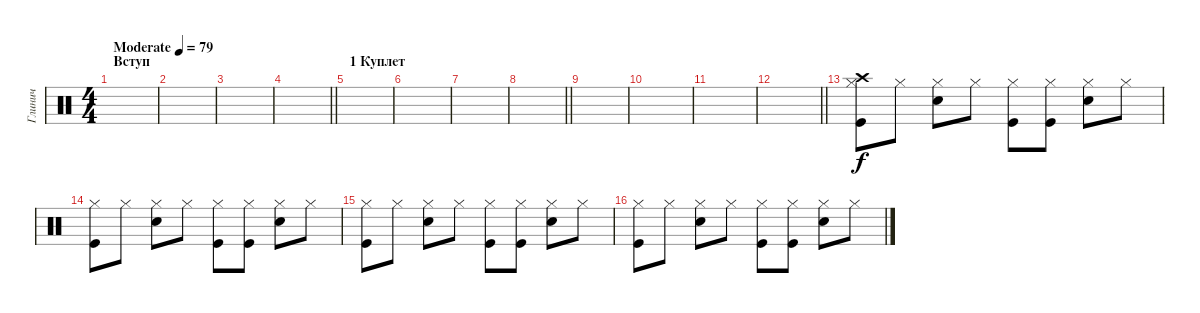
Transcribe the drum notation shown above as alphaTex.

\track ("Глинич" "Глинич") {instrument percussion}
\staff {score}
\articulation defaults
\ts (4 4)
\section ("" "Вступ")
\tempo (79 "Moderate")
\clef neutral
\ks c
|
|
|
\barLineRight lightlight
|
\section ("" "1 Куплет")
|
|
|
\barLineRight lightlight
|
|
|
|
\barLineRight lightlight
|
("Hi-Hat (closed)" "Crash high (hit)" "Kick (hit)").8 "Hi-Hat (closed)".8 ("Hi-Hat (closed)" "Snare (hit) 2").8 "Hi-Hat (closed)".8 ("Hi-Hat (closed)" "Kick (hit)").8 ("Hi-Hat (closed)" "Kick (hit)").8 ("Hi-Hat (closed)" "Snare (hit) 2").8 "Hi-Hat (closed)".8 |
("Hi-Hat (closed)" "Kick (hit)").8 "Hi-Hat (closed)".8 ("Hi-Hat (closed)" "Snare (hit) 2").8 "Hi-Hat (closed)".8 ("Hi-Hat (closed)" "Kick (hit)").8 ("Hi-Hat (closed)" "Kick (hit)").8 ("Hi-Hat (closed)" "Snare (hit) 2").8 "Hi-Hat (closed)".8 |
("Hi-Hat (closed)" "Kick (hit)").8 "Hi-Hat (closed)".8 ("Hi-Hat (closed)" "Snare (hit) 2").8 "Hi-Hat (closed)".8 ("Hi-Hat (closed)" "Kick (hit)").8 ("Hi-Hat (closed)" "Kick (hit)").8 ("Hi-Hat (closed)" "Snare (hit) 2").8 "Hi-Hat (closed)".8 |
("Hi-Hat (closed)" "Kick (hit)").8 "Hi-Hat (closed)".8 ("Hi-Hat (closed)" "Snare (hit) 2").8 "Hi-Hat (closed)".8 ("Hi-Hat (closed)" "Kick (hit)").8 ("Hi-Hat (closed)" "Kick (hit)").8 ("Hi-Hat (closed)" "Snare (hit) 2").8 "Hi-Hat (closed)".8
